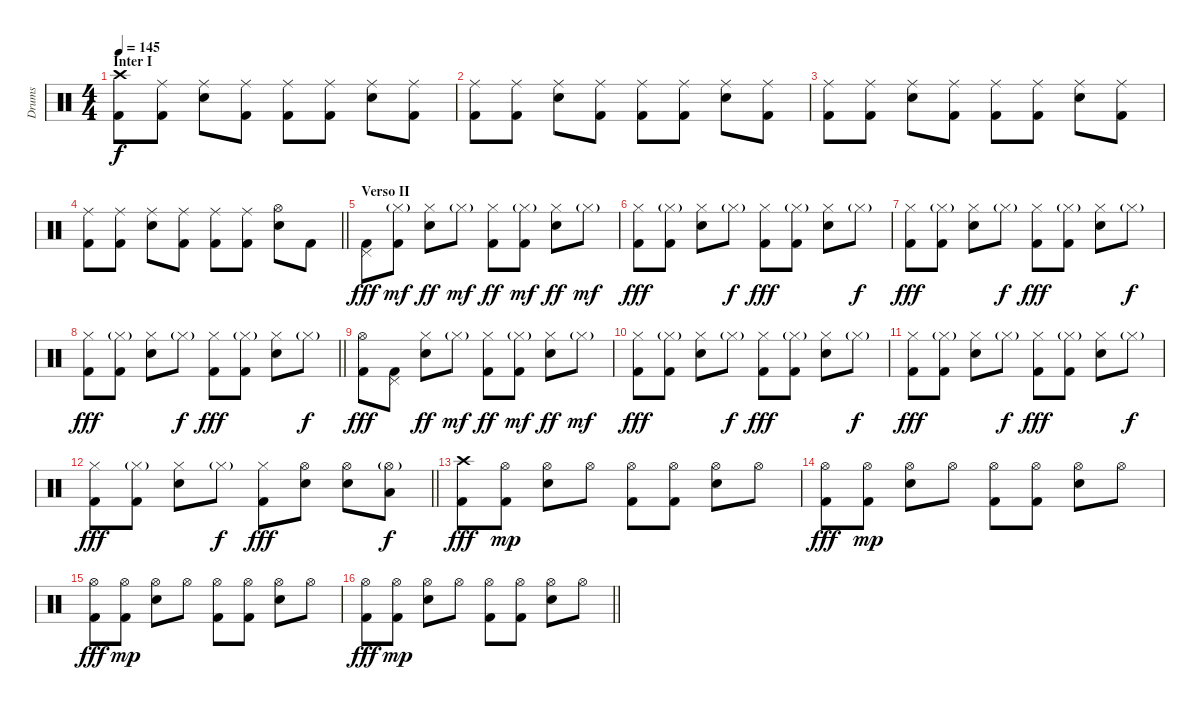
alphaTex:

\track ("Drums" "Drums") {instrument percussion}
\staff {score}
\articulation defaults
\ts (4 4)
\section ("" "Inter I")
\tempo 145
\clef neutral
\ks c
("Kick (hit) 2" "Crash high (hit)").8{dy f} ("Kick (hit) 2" "Ride (middle)").8 ("Snare (hit) 2" "Ride (middle)").8 ("Kick (hit) 2" "Ride (middle)").8 ("Kick (hit) 2" "Ride (middle)").8 ("Kick (hit) 2" "Ride (middle)").8 ("Snare (hit) 2" "Ride (middle)").8 ("Kick (hit) 2" "Ride (middle)").8 |
("Kick (hit) 2" "Ride (middle)").8 ("Kick (hit) 2" "Ride (middle)").8 ("Snare (hit) 2" "Ride (middle)").8 ("Kick (hit) 2" "Ride (middle)").8 ("Kick (hit) 2" "Ride (middle)").8 ("Kick (hit) 2" "Ride (middle)").8 ("Snare (hit) 2" "Ride (middle)").8 ("Kick (hit) 2" "Ride (middle)").8 |
("Kick (hit) 2" "Ride (middle)").8 ("Kick (hit) 2" "Ride (middle)").8 ("Snare (hit) 2" "Ride (middle)").8 ("Kick (hit) 2" "Ride (middle)").8 ("Kick (hit) 2" "Ride (middle)").8 ("Kick (hit) 2" "Ride (middle)").8 ("Snare (hit) 2" "Ride (middle)").8 ("Kick (hit) 2" "Ride (middle)").8 |
\barLineRight lightlight
("Kick (hit) 2" "Ride (middle)").8 ("Kick (hit) 2" "Ride (middle)").8 ("Snare (hit) 2" "Ride (middle)").8 ("Kick (hit) 2" "Ride (middle)").8 ("Kick (hit) 2" "Ride (middle)").8 ("Kick (hit) 2" "Ride (middle)").8 ("Snare (hit) 2" "Hi-Hat (open)").8 "Kick (hit) 2".8 |
\section ("" "Verso II")
("Kick (hit) 2" "Pedal Hi-Hat (hit)").8{dy fff} ("Kick (hit) 2" "Hi-Hat (closed)"{g}).8{dy mf} ("Snare (hit) 2" "Hi-Hat (closed)").8{dy ff} "Hi-Hat (closed)"{g}.8{dy mf} ("Kick (hit) 2" "Hi-Hat (closed)").8{dy ff} ("Kick (hit) 2" "Hi-Hat (closed)"{g}).8{dy mf} ("Snare (hit) 2" "Hi-Hat (closed)").8{dy ff} "Hi-Hat (closed)"{g}.8{dy mf} |
("Kick (hit) 2" "Hi-Hat (closed)").8{dy fff} ("Kick (hit) 2" "Hi-Hat (closed)"{g}).8 ("Snare (hit) 2" "Hi-Hat (closed)").8 "Hi-Hat (closed)"{g}.8{dy f} ("Kick (hit) 2" "Hi-Hat (closed)").8{dy fff} ("Kick (hit) 2" "Hi-Hat (closed)"{g}).8 ("Snare (hit) 2" "Hi-Hat (closed)").8 "Hi-Hat (closed)"{g}.8{dy f} |
("Kick (hit) 2" "Hi-Hat (closed)").8{dy fff} ("Kick (hit) 2" "Hi-Hat (closed)"{g}).8 ("Snare (hit) 2" "Hi-Hat (closed)").8 "Hi-Hat (closed)"{g}.8{dy f} ("Kick (hit) 2" "Hi-Hat (closed)").8{dy fff} ("Kick (hit) 2" "Hi-Hat (closed)"{g}).8 ("Snare (hit) 2" "Hi-Hat (closed)").8 "Hi-Hat (closed)"{g}.8{dy f} |
\barLineRight lightlight
("Kick (hit) 2" "Hi-Hat (closed)").8{dy fff} ("Kick (hit) 2" "Hi-Hat (closed)"{g}).8 ("Snare (hit) 2" "Hi-Hat (closed)").8 "Hi-Hat (closed)"{g}.8{dy f} ("Kick (hit) 2" "Hi-Hat (closed)").8{dy fff} ("Kick (hit) 2" "Hi-Hat (closed)"{g}).8 ("Snare (hit) 2" "Hi-Hat (closed)").8 "Hi-Hat (closed)"{g}.8{dy f} |
("Kick (hit) 2" "Hi-Hat (open)").8{dy fff} ("Kick (hit) 2" "Pedal Hi-Hat (hit)").8 ("Snare (hit) 2" "Hi-Hat (closed)").8{dy ff} "Hi-Hat (closed)"{g}.8{dy mf} ("Kick (hit) 2" "Hi-Hat (closed)").8{dy ff} ("Kick (hit) 2" "Hi-Hat (closed)"{g}).8{dy mf} ("Snare (hit) 2" "Hi-Hat (closed)").8{dy ff} "Hi-Hat (closed)"{g}.8{dy mf} |
("Kick (hit) 2" "Hi-Hat (closed)").8{dy fff} ("Kick (hit) 2" "Hi-Hat (closed)"{g}).8 ("Snare (hit) 2" "Hi-Hat (closed)").8 "Hi-Hat (closed)"{g}.8{dy f} ("Kick (hit) 2" "Hi-Hat (closed)").8{dy fff} ("Kick (hit) 2" "Hi-Hat (closed)"{g}).8 ("Snare (hit) 2" "Hi-Hat (closed)").8 "Hi-Hat (closed)"{g}.8{dy f} |
("Kick (hit) 2" "Hi-Hat (closed)").8{dy fff} ("Kick (hit) 2" "Hi-Hat (closed)"{g}).8 ("Snare (hit) 2" "Hi-Hat (closed)").8 "Hi-Hat (closed)"{g}.8{dy f} ("Kick (hit) 2" "Hi-Hat (closed)").8{dy fff} ("Kick (hit) 2" "Hi-Hat (closed)"{g}).8 ("Snare (hit) 2" "Hi-Hat (closed)").8 "Hi-Hat (closed)"{g}.8{dy f} |
\barLineRight lightlight
("Kick (hit) 2" "Hi-Hat (closed)").8{dy fff} ("Kick (hit) 2" "Hi-Hat (closed)"{g}).8 ("Snare (hit) 2" "Hi-Hat (closed)").8 "Hi-Hat (closed)"{g}.8{dy f} ("Kick (hit) 2" "Hi-Hat (closed)").8{dy fff} ("Snare (hit) 2" "Hi-Hat (open)").8 ("Snare (hit) 2" "Hi-Hat (open)").8 ("Low Tom (hit)" "Hi-Hat (open)"{g}).8{dy f} |
("Kick (hit) 2" "Crash high (hit)").8{dy fff} ("Kick (hit) 2" "Hi-Hat (open)").8{dy mp} ("Snare (hit) 2" "Hi-Hat (open)").8 "Hi-Hat (open)".8 ("Kick (hit) 2" "Hi-Hat (open)").8 ("Kick (hit) 2" "Hi-Hat (open)").8 ("Snare (hit) 2" "Hi-Hat (open)").8 "Hi-Hat (open)".8 |
("Kick (hit) 2" "Hi-Hat (open)").8{dy fff} ("Kick (hit) 2" "Hi-Hat (open)").8{dy mp} ("Snare (hit) 2" "Hi-Hat (open)").8 "Hi-Hat (open)".8 ("Kick (hit) 2" "Hi-Hat (open)").8 ("Kick (hit) 2" "Hi-Hat (open)").8 ("Snare (hit) 2" "Hi-Hat (open)").8 "Hi-Hat (open)".8 |
("Kick (hit) 2" "Hi-Hat (open)").8{dy fff} ("Kick (hit) 2" "Hi-Hat (open)").8{dy mp} ("Snare (hit) 2" "Hi-Hat (open)").8 "Hi-Hat (open)".8 ("Kick (hit) 2" "Hi-Hat (open)").8 ("Kick (hit) 2" "Hi-Hat (open)").8 ("Snare (hit) 2" "Hi-Hat (open)").8 "Hi-Hat (open)".8 |
\barLineRight lightlight
("Kick (hit) 2" "Hi-Hat (open)").8{dy fff} ("Kick (hit) 2" "Hi-Hat (open)").8{dy mp} ("Snare (hit) 2" "Hi-Hat (open)").8 "Hi-Hat (open)".8 ("Kick (hit) 2" "Hi-Hat (open)").8 ("Kick (hit) 2" "Hi-Hat (open)").8 ("Snare (hit) 2" "Hi-Hat (open)").8 "Hi-Hat (open)".8
